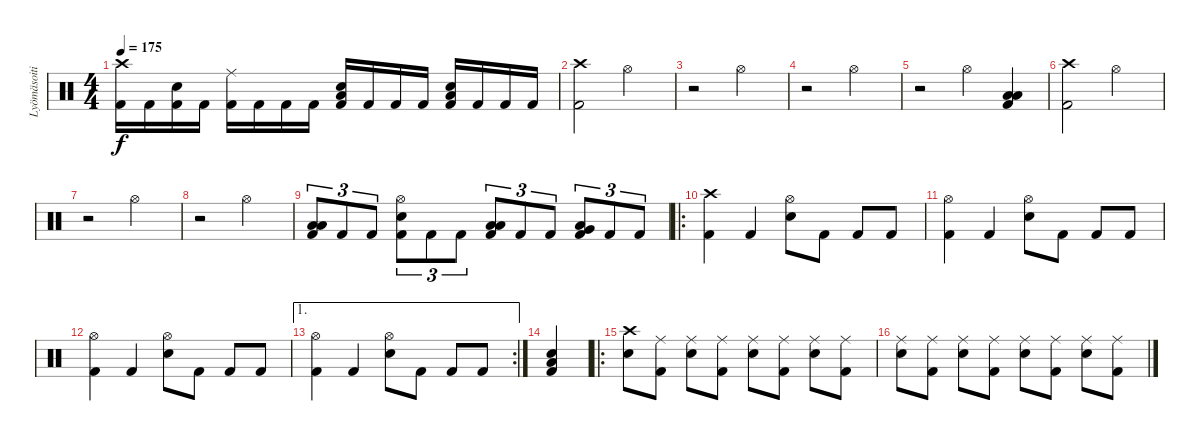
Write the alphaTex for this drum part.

\track ("Lyömäsoitin" "Lyömäsoiti") {instrument percussion}
\staff {score}
\articulation defaults
\ts (4 4)
\tempo 175
\clef neutral
\ks c
("Kick (hit) 2" "Crash high (hit)").16{dy f} "Kick (hit) 2".16 ("Kick (hit) 2" "Electric Snare (hit)").16 "Kick (hit) 2".16 ("Kick (hit) 2" "Ride (middle)").16 "Kick (hit) 2".16 "Kick (hit) 2".16 "Kick (hit) 2".16 ("Kick (hit) 2" "Electric Snare (hit)" "Low Floor Tom (hit)").16 "Kick (hit) 2".16 "Kick (hit) 2".16 "Kick (hit) 2".16 ("Kick (hit) 2" "Electric Snare (hit)" "Low Floor Tom (hit)").16 "Kick (hit) 2".16 "Kick (hit) 2".16 "Kick (hit) 2".16 |
("Kick (hit) 2" "Crash high (hit)").2 "Hi-Hat (open)".2 |
r.2 "Hi-Hat (open)".2 |
r.2 "Hi-Hat (open)".2 |
r.2 "Hi-Hat (open)".4 ("Kick (hit) 2" "Low Tom (hit)" "Low Floor Tom (hit)").4 |
("Kick (hit) 2" "Crash high (hit)").2 "Hi-Hat (open)".2 |
r.2 "Hi-Hat (open)".2 |
r.2 "Hi-Hat (open)".2 |
("Kick (hit) 2" "Low Tom (hit)" "Low Floor Tom (hit)").8{tu (3 2)} "Kick (hit) 2".8{tu (3 2)} "Kick (hit) 2".8{tu (3 2)} ("Kick (hit) 2" "Electric Snare (hit)" "Hi-Hat (open)").8{tu (3 2)} "Kick (hit) 2".8{tu (3 2)} "Kick (hit) 2".8{tu (3 2)} ("Kick (hit) 2" "Low Tom (hit)" "Low Floor Tom (hit)").8{tu (3 2)} "Kick (hit) 2".8{tu (3 2)} "Kick (hit) 2".8{tu (3 2)} ("Kick (hit) 2" "Very Low Tom (hit)" "Low Floor Tom (hit)").8{tu (3 2)} "Kick (hit) 2".8{tu (3 2)} "Kick (hit) 2".8{tu (3 2)} |
\ro
("Kick (hit) 2" "Crash high (hit)").4 "Kick (hit) 2".4 ("Electric Snare (hit)" "Hi-Hat (open)").8 "Kick (hit) 2".8 "Kick (hit) 2".8 "Kick (hit) 2".8 |
("Kick (hit) 2" "Hi-Hat (open)").4 "Kick (hit) 2".4 ("Electric Snare (hit)" "Hi-Hat (open)").8 "Kick (hit) 2".8 "Kick (hit) 2".8 "Kick (hit) 2".8 |
("Kick (hit) 2" "Hi-Hat (open)").4 "Kick (hit) 2".4 ("Electric Snare (hit)" "Hi-Hat (open)").8 "Kick (hit) 2".8 "Kick (hit) 2".8 "Kick (hit) 2".8 |
\ae 1
\rc 2
("Kick (hit) 2" "Hi-Hat (open)").4 "Kick (hit) 2".4 ("Electric Snare (hit)" "Hi-Hat (open)").8 "Kick (hit) 2".8 "Kick (hit) 2".8 "Kick (hit) 2".8 |
("Kick (hit) 2" "Electric Snare (hit)" "Low Floor Tom (hit)").4 |
\ro
("Electric Snare (hit)" "Crash high (hit)").8 ("Kick (hit) 2" "Ride (middle)").8 ("Electric Snare (hit)" "Ride (middle)").8 ("Kick (hit) 2" "Ride (middle)").8 ("Electric Snare (hit)" "Ride (middle)").8 ("Kick (hit) 2" "Ride (middle)").8 ("Electric Snare (hit)" "Ride (middle)").8 ("Kick (hit) 2" "Ride (middle)").8 |
("Electric Snare (hit)" "Ride (middle)").8 ("Kick (hit) 2" "Ride (middle)").8 ("Electric Snare (hit)" "Ride (middle)").8 ("Kick (hit) 2" "Ride (middle)").8 ("Electric Snare (hit)" "Ride (middle)").8 ("Kick (hit) 2" "Ride (middle)").8 ("Electric Snare (hit)" "Ride (middle)").8 ("Kick (hit) 2" "Ride (middle)").8
